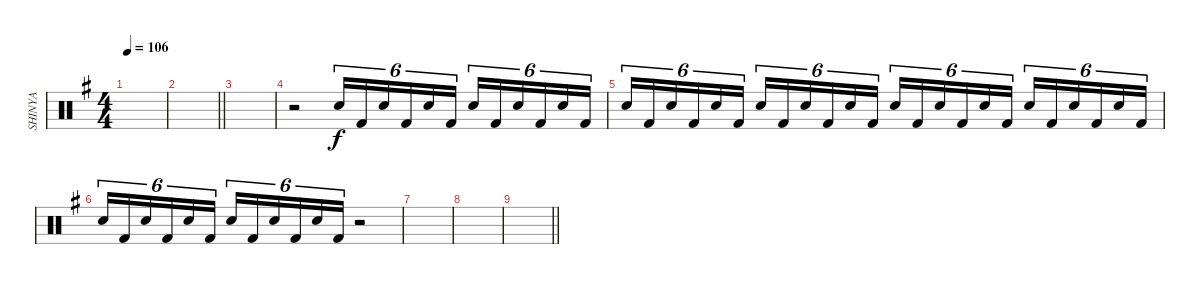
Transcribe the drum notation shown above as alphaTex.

\track ("SHINYA" "SHINYA") {instrument percussion}
\staff {score}
\articulation defaults
\ts (4 4)
\tempo 106
\clef neutral
\ks g
|
\barLineRight lightlight
|
|
r.2 "Snare (hit)"{x}.16{tu (6 4)} "Kick (hit) 2".16{tu (6 4)} "Snare (hit)"{x}.16{tu (6 4)} "Kick (hit) 2".16{tu (6 4)} "Snare (hit)"{x}.16{tu (6 4)} "Kick (hit) 2".16{tu (6 4)} "Snare (hit)"{x}.16{tu (6 4)} "Kick (hit) 2".16{tu (6 4)} "Snare (hit)"{x}.16{tu (6 4)} "Kick (hit) 2".16{tu (6 4)} "Snare (hit)"{x}.16{tu (6 4)} "Kick (hit) 2".16{tu (6 4)} |
"Snare (hit)"{x}.16{tu (6 4)} "Kick (hit) 2".16{tu (6 4)} "Snare (hit)"{x}.16{tu (6 4)} "Kick (hit) 2".16{tu (6 4)} "Snare (hit)"{x}.16{tu (6 4)} "Kick (hit) 2".16{tu (6 4)} "Snare (hit)"{x}.16{tu (6 4)} "Kick (hit) 2".16{tu (6 4)} "Snare (hit)"{x}.16{tu (6 4)} "Kick (hit) 2".16{tu (6 4)} "Snare (hit)"{x}.16{tu (6 4)} "Kick (hit) 2".16{tu (6 4)} "Snare (hit)"{x}.16{tu (6 4)} "Kick (hit) 2".16{tu (6 4)} "Snare (hit)"{x}.16{tu (6 4)} "Kick (hit) 2".16{tu (6 4)} "Snare (hit)"{x}.16{tu (6 4)} "Kick (hit) 2".16{tu (6 4)} "Snare (hit)"{x}.16{tu (6 4)} "Kick (hit) 2".16{tu (6 4)} "Snare (hit)"{x}.16{tu (6 4)} "Kick (hit) 2".16{tu (6 4)} "Snare (hit)"{x}.16{tu (6 4)} "Kick (hit) 2".16{tu (6 4)} |
"Snare (hit)"{x}.16{tu (6 4)} "Kick (hit) 2".16{tu (6 4)} "Snare (hit)"{x}.16{tu (6 4)} "Kick (hit) 2".16{tu (6 4)} "Snare (hit)"{x}.16{tu (6 4)} "Kick (hit) 2".16{tu (6 4)} "Snare (hit)"{x}.16{tu (6 4)} "Kick (hit) 2".16{tu (6 4)} "Snare (hit)"{x}.16{tu (6 4)} "Kick (hit) 2".16{tu (6 4)} "Snare (hit)"{x}.16{tu (6 4)} "Kick (hit) 2".16{tu (6 4)} r.2 |
|
|
\barLineRight lightlight
